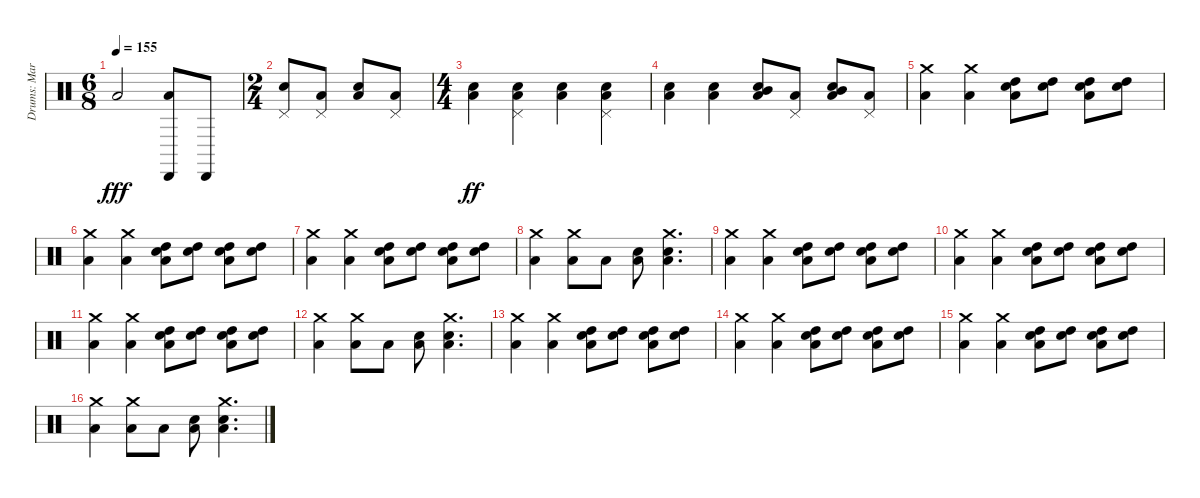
\track ("Drums: Mark Cross" "Drums: Mar") {instrument percussion}
\staff {score}
\articulation defaults
\ts (6 8)
\tempo 155
\clef neutral
\ks c "Low Tom (hit)".2{dy fff}
("Cabasa (hit)" "Low Tom (hit)"{t}).8 "Cabasa (hit)".8 |
\ts (2 4)
("Pedal Hi-Hat (hit)" "Snare (hit) 2").8 ("Pedal Hi-Hat (hit)" "Low Tom (hit)").8 ("Snare (hit) 2" "Low Tom (hit)").8 ("Pedal Hi-Hat (hit)" "Low Tom (hit)").8 |
\ts (4 4)
("Snare (hit) 2" "Low Tom (hit)").4{dy ff} ("Snare (hit) 2" "Pedal Hi-Hat (hit)" "Low Tom (hit)").4 ("Snare (hit) 2" "Low Tom (hit)").4 ("Snare (hit) 2" "Pedal Hi-Hat (hit)" "Low Tom (hit)").4 |
("Snare (hit) 2" "Low Tom (hit)").4 ("Snare (hit) 2" "Low Tom (hit)").4 ("Snare (hit) 2" "Mid Tom (hit)" "Low Tom (hit)").8 ("Pedal Hi-Hat (hit)" "Low Tom (hit)").8 ("Snare (hit) 2" "Mid Tom (hit)" "Low Tom (hit)").8 ("Pedal Hi-Hat (hit)" "Low Tom (hit)").8 |
("Crash medium (hit)" "Low Tom (hit)").4 ("Crash medium (hit)" "Low Tom (hit)").4 ("Snare (hit) 2" "High Tom (hit)" "Low Tom (hit)").8 ("Snare (hit) 2" "High Tom (hit)").8 ("Snare (hit) 2" "High Tom (hit)" "Low Tom (hit)").8 ("Snare (hit) 2" "High Tom (hit)").8 |
("Crash medium (hit)" "Low Tom (hit)").4 ("Crash medium (hit)" "Low Tom (hit)").4 ("Snare (hit) 2" "High Tom (hit)" "Low Tom (hit)").8 ("Snare (hit) 2" "High Tom (hit)").8 ("Snare (hit) 2" "High Tom (hit)" "Low Tom (hit)").8 ("Snare (hit) 2" "High Tom (hit)").8 |
("Crash medium (hit)" "Low Tom (hit)").4 ("Crash medium (hit)" "Low Tom (hit)").4 ("Snare (hit) 2" "High Tom (hit)" "Low Tom (hit)").8 ("Snare (hit) 2" "High Tom (hit)").8 ("Snare (hit) 2" "High Tom (hit)" "Low Tom (hit)").8 ("Snare (hit) 2" "High Tom (hit)").8 |
("Crash medium (hit)" "Low Tom (hit)").4 ("Crash medium (hit)" "Low Tom (hit)").8 "Low Tom (hit)".8 ("Snare (hit) 2" "Low Tom (hit)").8 ("Crash medium (hit)" "Snare (hit) 2" "Low Tom (hit)").4{d} |
("Crash medium (hit)" "Low Tom (hit)").4 ("Crash medium (hit)" "Low Tom (hit)").4 ("Snare (hit) 2" "High Tom (hit)" "Low Tom (hit)").8 ("Snare (hit) 2" "High Tom (hit)").8 ("Snare (hit) 2" "High Tom (hit)" "Low Tom (hit)").8 ("Snare (hit) 2" "High Tom (hit)").8 |
("Crash medium (hit)" "Low Tom (hit)").4 ("Crash medium (hit)" "Low Tom (hit)").4 ("Snare (hit) 2" "High Tom (hit)" "Low Tom (hit)").8 ("Snare (hit) 2" "High Tom (hit)").8 ("Snare (hit) 2" "High Tom (hit)" "Low Tom (hit)").8 ("Snare (hit) 2" "High Tom (hit)").8 |
("Crash medium (hit)" "Low Tom (hit)").4 ("Crash medium (hit)" "Low Tom (hit)").4 ("Snare (hit) 2" "High Tom (hit)" "Low Tom (hit)").8 ("Snare (hit) 2" "High Tom (hit)").8 ("Snare (hit) 2" "High Tom (hit)" "Low Tom (hit)").8 ("Snare (hit) 2" "High Tom (hit)").8 |
("Crash medium (hit)" "Low Tom (hit)").4 ("Crash medium (hit)" "Low Tom (hit)").8 "Low Tom (hit)".8 ("Snare (hit) 2" "Low Tom (hit)").8 ("Crash medium (hit)" "Snare (hit) 2" "Low Tom (hit)").4{d} |
("Crash medium (hit)" "Low Tom (hit)").4 ("Crash medium (hit)" "Low Tom (hit)").4 ("Snare (hit) 2" "High Tom (hit)" "Low Tom (hit)").8 ("Snare (hit) 2" "High Tom (hit)").8 ("Snare (hit) 2" "High Tom (hit)" "Low Tom (hit)").8 ("Snare (hit) 2" "High Tom (hit)").8 |
("Crash medium (hit)" "Low Tom (hit)").4 ("Crash medium (hit)" "Low Tom (hit)").4 ("Snare (hit) 2" "High Tom (hit)" "Low Tom (hit)").8 ("Snare (hit) 2" "High Tom (hit)").8 ("Snare (hit) 2" "High Tom (hit)" "Low Tom (hit)").8 ("Snare (hit) 2" "High Tom (hit)").8 |
("Crash medium (hit)" "Low Tom (hit)").4 ("Crash medium (hit)" "Low Tom (hit)").4 ("Snare (hit) 2" "High Tom (hit)" "Low Tom (hit)").8 ("Snare (hit) 2" "High Tom (hit)").8 ("Snare (hit) 2" "High Tom (hit)" "Low Tom (hit)").8 ("Snare (hit) 2" "High Tom (hit)").8 |
("Crash medium (hit)" "Low Tom (hit)").4 ("Crash medium (hit)" "Low Tom (hit)").8 "Low Tom (hit)".8 ("Snare (hit) 2" "Low Tom (hit)").8 ("Crash medium (hit)" "Snare (hit) 2" "Low Tom (hit)").4{d}
